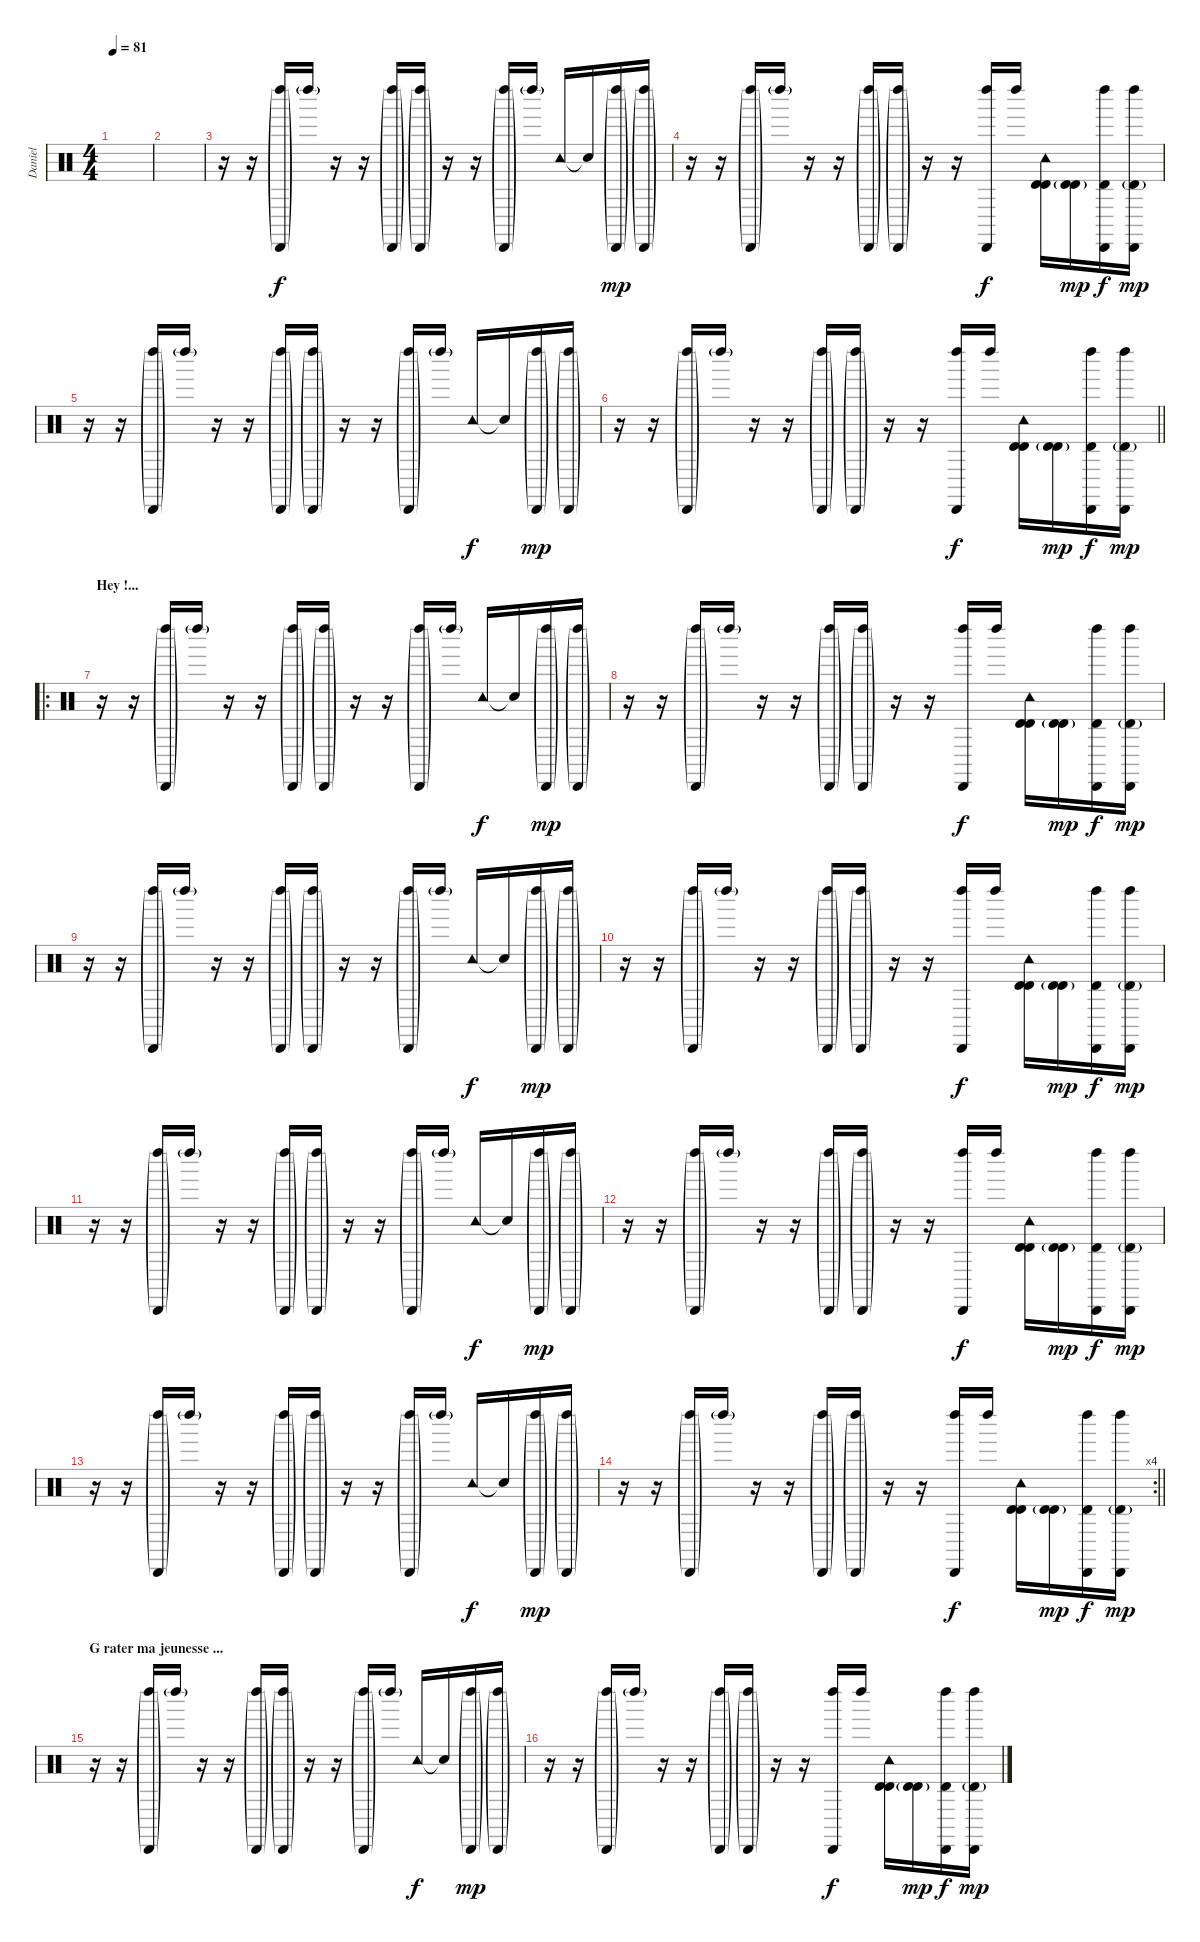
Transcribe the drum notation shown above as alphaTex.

\track ("Daniel" "Daniel") {instrument percussion}
\staff {score}
\articulation defaults
\ts (4 4)
\tempo 81
\clef neutral
\ks c
|
|
r.16 r.16 ("Left Maraca (hit)"{g} "Cabasa (hit)"{g}).16 "Left Maraca (hit)"{g}.16 r.16 r.16 ("Left Maraca (hit)"{g} "Cabasa (hit)"{g}).16 ("Left Maraca (hit)"{g} "Cabasa (hit)"{g}).16 r.16 r.16 ("Left Maraca (hit)"{g} "Cabasa (hit)"{g}).16 "Left Maraca (hit)"{g}.16 "Tambourine (hit)".16{dy f} "Snare (hit)"{t}.16 ("Left Maraca (hit)"{g} "Cabasa (hit)"{g}).16{dy mp} ("Left Maraca (hit)"{g} "Cabasa (hit)"{g}).16 |
r.16 r.16 ("Left Maraca (hit)"{g} "Cabasa (hit)"{g}).16 "Left Maraca (hit)"{g}.16 r.16 r.16 ("Left Maraca (hit)"{g} "Cabasa (hit)"{g}).16 ("Left Maraca (hit)"{g} "Cabasa (hit)"{g}).16 r.16 r.16 ("Left Maraca (hit)" "Cabasa (hit)").16{dy f} "Left Maraca (hit)".16 ("Tambourine (hit)" "Timbale high (hit)" "Timbale high (hit)").16 ("Timbale high (hit)"{g} "Timbale high (hit)").16{dy mp} ("Left Maraca (hit)" "Cabasa (hit)" "Timbale high (hit)").16{dy f} ("Left Maraca (hit)" "Cabasa (hit)" "Timbale high (hit)"{g}).16{dy mp} |
r.16 r.16 ("Left Maraca (hit)"{g} "Cabasa (hit)"{g}).16 "Left Maraca (hit)"{g}.16 r.16 r.16 ("Left Maraca (hit)"{g} "Cabasa (hit)"{g}).16 ("Left Maraca (hit)"{g} "Cabasa (hit)"{g}).16 r.16 r.16 ("Left Maraca (hit)"{g} "Cabasa (hit)"{g}).16 "Left Maraca (hit)"{g}.16 "Tambourine (hit)".16{dy f} "Snare (hit)"{t}.16 ("Left Maraca (hit)"{g} "Cabasa (hit)"{g}).16{dy mp} ("Left Maraca (hit)"{g} "Cabasa (hit)"{g}).16 |
\barLineRight lightlight
r.16 r.16 ("Left Maraca (hit)"{g} "Cabasa (hit)"{g}).16 "Left Maraca (hit)"{g}.16 r.16 r.16 ("Left Maraca (hit)"{g} "Cabasa (hit)"{g}).16 ("Left Maraca (hit)"{g} "Cabasa (hit)"{g}).16 r.16 r.16 ("Left Maraca (hit)" "Cabasa (hit)").16{dy f} "Left Maraca (hit)".16 ("Tambourine (hit)" "Timbale high (hit)" "Timbale high (hit)").16 ("Timbale high (hit)"{g} "Timbale high (hit)").16{dy mp} ("Left Maraca (hit)" "Cabasa (hit)" "Timbale high (hit)").16{dy f} ("Left Maraca (hit)" "Cabasa (hit)" "Timbale high (hit)"{g}).16{dy mp} |
\ro
\section ("" "Hey !...")
r.16 r.16 ("Left Maraca (hit)"{g} "Cabasa (hit)"{g}).16 "Left Maraca (hit)"{g}.16 r.16 r.16 ("Left Maraca (hit)"{g} "Cabasa (hit)"{g}).16 ("Left Maraca (hit)"{g} "Cabasa (hit)"{g}).16 r.16 r.16 ("Left Maraca (hit)"{g} "Cabasa (hit)"{g}).16 "Left Maraca (hit)"{g}.16 "Tambourine (hit)".16{dy f} "Snare (hit)"{t}.16 ("Left Maraca (hit)"{g} "Cabasa (hit)"{g}).16{dy mp} ("Left Maraca (hit)"{g} "Cabasa (hit)"{g}).16 |
r.16 r.16 ("Left Maraca (hit)"{g} "Cabasa (hit)"{g}).16 "Left Maraca (hit)"{g}.16 r.16 r.16 ("Left Maraca (hit)"{g} "Cabasa (hit)"{g}).16 ("Left Maraca (hit)"{g} "Cabasa (hit)"{g}).16 r.16 r.16 ("Left Maraca (hit)" "Cabasa (hit)").16{dy f} "Left Maraca (hit)".16 ("Tambourine (hit)" "Timbale high (hit)" "Timbale high (hit)").16 ("Timbale high (hit)"{g} "Timbale high (hit)").16{dy mp} ("Left Maraca (hit)" "Cabasa (hit)" "Timbale high (hit)").16{dy f} ("Left Maraca (hit)" "Cabasa (hit)" "Timbale high (hit)"{g}).16{dy mp} |
r.16 r.16 ("Left Maraca (hit)"{g} "Cabasa (hit)"{g}).16 "Left Maraca (hit)"{g}.16 r.16 r.16 ("Left Maraca (hit)"{g} "Cabasa (hit)"{g}).16 ("Left Maraca (hit)"{g} "Cabasa (hit)"{g}).16 r.16 r.16 ("Left Maraca (hit)"{g} "Cabasa (hit)"{g}).16 "Left Maraca (hit)"{g}.16 "Tambourine (hit)".16{dy f} "Snare (hit)"{t}.16 ("Left Maraca (hit)"{g} "Cabasa (hit)"{g}).16{dy mp} ("Left Maraca (hit)"{g} "Cabasa (hit)"{g}).16 |
r.16 r.16 ("Left Maraca (hit)"{g} "Cabasa (hit)"{g}).16 "Left Maraca (hit)"{g}.16 r.16 r.16 ("Left Maraca (hit)"{g} "Cabasa (hit)"{g}).16 ("Left Maraca (hit)"{g} "Cabasa (hit)"{g}).16 r.16 r.16 ("Left Maraca (hit)" "Cabasa (hit)").16{dy f} "Left Maraca (hit)".16 ("Tambourine (hit)" "Timbale high (hit)" "Timbale high (hit)").16 ("Timbale high (hit)"{g} "Timbale high (hit)").16{dy mp} ("Left Maraca (hit)" "Cabasa (hit)" "Timbale high (hit)").16{dy f} ("Left Maraca (hit)" "Cabasa (hit)" "Timbale high (hit)"{g}).16{dy mp} |
r.16 r.16 ("Left Maraca (hit)"{g} "Cabasa (hit)"{g}).16 "Left Maraca (hit)"{g}.16 r.16 r.16 ("Left Maraca (hit)"{g} "Cabasa (hit)"{g}).16 ("Left Maraca (hit)"{g} "Cabasa (hit)"{g}).16 r.16 r.16 ("Left Maraca (hit)"{g} "Cabasa (hit)"{g}).16 "Left Maraca (hit)"{g}.16 "Tambourine (hit)".16{dy f} "Snare (hit)"{t}.16 ("Left Maraca (hit)"{g} "Cabasa (hit)"{g}).16{dy mp} ("Left Maraca (hit)"{g} "Cabasa (hit)"{g}).16 |
r.16 r.16 ("Left Maraca (hit)"{g} "Cabasa (hit)"{g}).16 "Left Maraca (hit)"{g}.16 r.16 r.16 ("Left Maraca (hit)"{g} "Cabasa (hit)"{g}).16 ("Left Maraca (hit)"{g} "Cabasa (hit)"{g}).16 r.16 r.16 ("Left Maraca (hit)" "Cabasa (hit)").16{dy f} "Left Maraca (hit)".16 ("Tambourine (hit)" "Timbale high (hit)" "Timbale high (hit)").16 ("Timbale high (hit)"{g} "Timbale high (hit)").16{dy mp} ("Left Maraca (hit)" "Cabasa (hit)" "Timbale high (hit)").16{dy f} ("Left Maraca (hit)" "Cabasa (hit)" "Timbale high (hit)"{g}).16{dy mp} |
r.16 r.16 ("Left Maraca (hit)"{g} "Cabasa (hit)"{g}).16 "Left Maraca (hit)"{g}.16 r.16 r.16 ("Left Maraca (hit)"{g} "Cabasa (hit)"{g}).16 ("Left Maraca (hit)"{g} "Cabasa (hit)"{g}).16 r.16 r.16 ("Left Maraca (hit)"{g} "Cabasa (hit)"{g}).16 "Left Maraca (hit)"{g}.16 "Tambourine (hit)".16{dy f} "Snare (hit)"{t}.16 ("Left Maraca (hit)"{g} "Cabasa (hit)"{g}).16{dy mp} ("Left Maraca (hit)"{g} "Cabasa (hit)"{g}).16 |
\rc 4
\barLineRight lightlight
r.16 r.16 ("Left Maraca (hit)"{g} "Cabasa (hit)"{g}).16 "Left Maraca (hit)"{g}.16 r.16 r.16 ("Left Maraca (hit)"{g} "Cabasa (hit)"{g}).16 ("Left Maraca (hit)"{g} "Cabasa (hit)"{g}).16 r.16 r.16 ("Left Maraca (hit)" "Cabasa (hit)").16{dy f} "Left Maraca (hit)".16 ("Tambourine (hit)" "Timbale high (hit)" "Timbale high (hit)").16 ("Timbale high (hit)"{g} "Timbale high (hit)").16{dy mp} ("Left Maraca (hit)" "Cabasa (hit)" "Timbale high (hit)").16{dy f} ("Left Maraca (hit)" "Cabasa (hit)" "Timbale high (hit)"{g}).16{dy mp} |
\section ("" "G rater ma jeunesse ...")
r.16 r.16 ("Left Maraca (hit)"{g} "Cabasa (hit)"{g}).16 "Left Maraca (hit)"{g}.16 r.16 r.16 ("Left Maraca (hit)"{g} "Cabasa (hit)"{g}).16 ("Left Maraca (hit)"{g} "Cabasa (hit)"{g}).16 r.16 r.16 ("Left Maraca (hit)"{g} "Cabasa (hit)"{g}).16 "Left Maraca (hit)"{g}.16 "Tambourine (hit)".16{dy f} "Snare (hit)"{t}.16 ("Left Maraca (hit)"{g} "Cabasa (hit)"{g}).16{dy mp} ("Left Maraca (hit)"{g} "Cabasa (hit)"{g}).16 |
r.16 r.16 ("Left Maraca (hit)"{g} "Cabasa (hit)"{g}).16 "Left Maraca (hit)"{g}.16 r.16 r.16 ("Left Maraca (hit)"{g} "Cabasa (hit)"{g}).16 ("Left Maraca (hit)"{g} "Cabasa (hit)"{g}).16 r.16 r.16 ("Left Maraca (hit)" "Cabasa (hit)").16{dy f} "Left Maraca (hit)".16 ("Tambourine (hit)" "Timbale high (hit)" "Timbale high (hit)").16 ("Timbale high (hit)"{g} "Timbale high (hit)").16{dy mp} ("Left Maraca (hit)" "Cabasa (hit)" "Timbale high (hit)").16{dy f} ("Left Maraca (hit)" "Cabasa (hit)" "Timbale high (hit)"{g}).16{dy mp}
